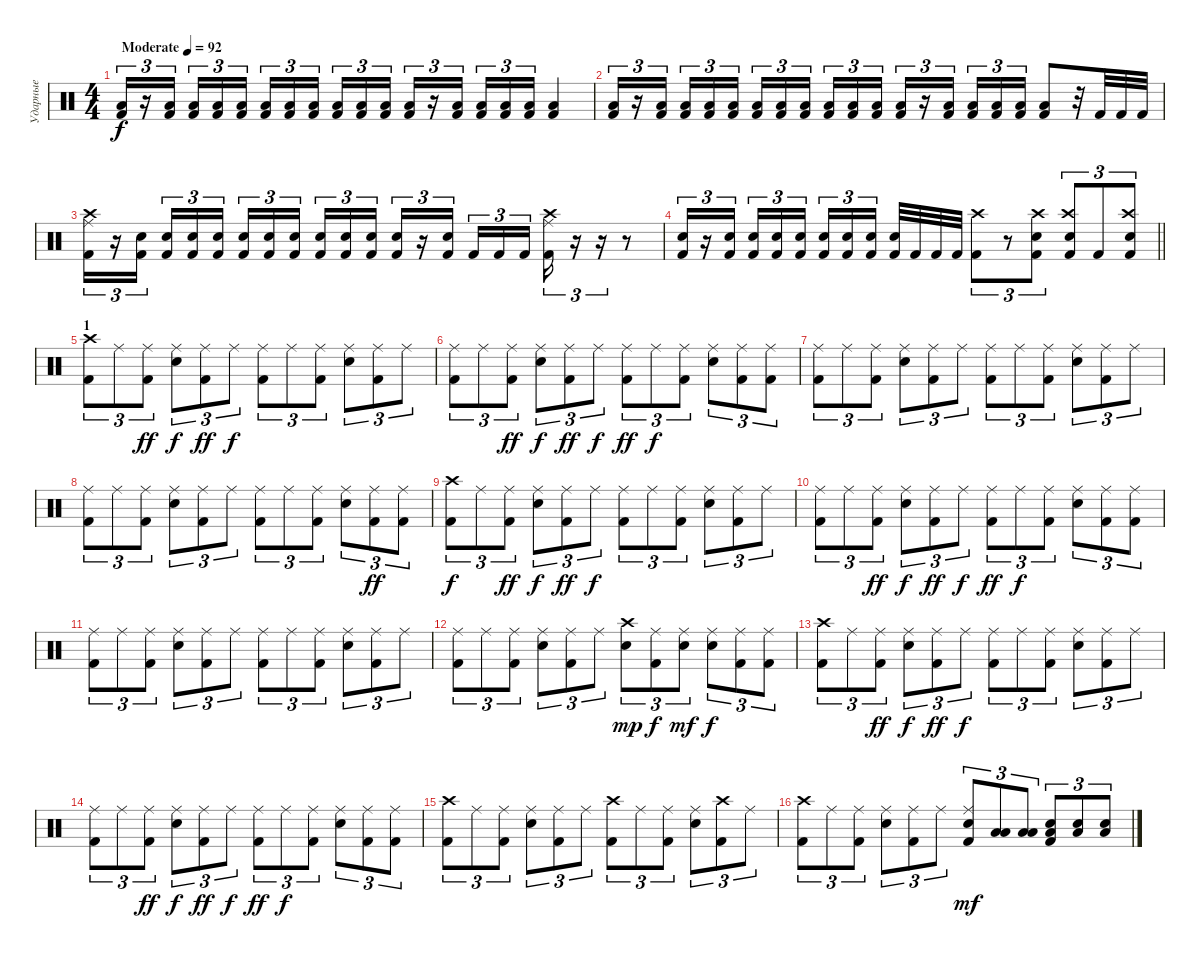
\track ("Ударные" "Ударные") {instrument percussion}
\staff {score}
\articulation defaults
\ts (4 4)
\tempo (92 "Moderate")
\clef neutral
\ks c
("Low Floor Tom (hit)" "Kick (hit) 2").16{tu (3 2) dy f} r.16{tu (3 2)} ("Low Floor Tom (hit)" "Kick (hit) 2").16{tu (3 2) beam splitsecondary} ("Low Floor Tom (hit)" "Kick (hit) 2").16{tu (3 2)} ("Low Floor Tom (hit)" "Kick (hit) 2").16{tu (3 2)} ("Low Floor Tom (hit)" "Kick (hit) 2").16{tu (3 2)} ("Low Floor Tom (hit)" "Kick (hit) 2").16{tu (3 2)} ("Low Floor Tom (hit)" "Kick (hit) 2").16{tu (3 2)} ("Low Floor Tom (hit)" "Kick (hit) 2").16{tu (3 2) beam splitsecondary} ("Low Floor Tom (hit)" "Kick (hit) 2").16{tu (3 2)} ("Low Floor Tom (hit)" "Kick (hit) 2").16{tu (3 2)} ("Low Floor Tom (hit)" "Kick (hit) 2").16{tu (3 2)} ("Low Floor Tom (hit)" "Kick (hit) 2").16{tu (3 2)} r.16{tu (3 2)} ("Low Floor Tom (hit)" "Kick (hit) 2").16{tu (3 2) beam splitsecondary} ("Low Floor Tom (hit)" "Kick (hit) 2").16{tu (3 2)} ("Low Floor Tom (hit)" "Kick (hit) 2").16{tu (3 2)} ("Low Floor Tom (hit)" "Kick (hit) 2").16{tu (3 2)} ("Low Floor Tom (hit)" "Kick (hit) 2").4 |
("Low Floor Tom (hit)" "Kick (hit) 2").16{tu (3 2)} r.16{tu (3 2)} ("Low Floor Tom (hit)" "Kick (hit) 2").16{tu (3 2) beam splitsecondary} ("Low Floor Tom (hit)" "Kick (hit) 2").16{tu (3 2)} ("Low Floor Tom (hit)" "Kick (hit) 2").16{tu (3 2)} ("Low Floor Tom (hit)" "Kick (hit) 2").16{tu (3 2)} ("Low Floor Tom (hit)" "Kick (hit) 2").16{tu (3 2)} ("Low Floor Tom (hit)" "Kick (hit) 2").16{tu (3 2)} ("Low Floor Tom (hit)" "Kick (hit) 2").16{tu (3 2) beam splitsecondary} ("Low Floor Tom (hit)" "Kick (hit) 2").16{tu (3 2)} ("Low Floor Tom (hit)" "Kick (hit) 2").16{tu (3 2)} ("Low Floor Tom (hit)" "Kick (hit) 2").16{tu (3 2)} ("Low Floor Tom (hit)" "Kick (hit) 2").16{tu (3 2)} r.16{tu (3 2)} ("Low Floor Tom (hit)" "Kick (hit) 2").16{tu (3 2) beam splitsecondary} ("Low Floor Tom (hit)" "Kick (hit) 2").16{tu (3 2)} ("Low Floor Tom (hit)" "Kick (hit) 2").16{tu (3 2)} ("Low Floor Tom (hit)" "Kick (hit) 2").16{tu (3 2)} ("Low Floor Tom (hit)" "Kick (hit) 2").8 r.32 "Kick (hit) 2".32 "Kick (hit) 2".32 "Kick (hit) 2".32 |
("Crash high (hit)" "Ride (middle)" "Kick (hit) 2").16{tu (3 2)} r.16{tu (3 2)} ("Electric Snare (hit)" "Kick (hit) 2").16{tu (3 2) beam splitsecondary} ("Electric Snare (hit)" "Kick (hit) 2").16{tu (3 2)} ("Electric Snare (hit)" "Kick (hit) 2").16{tu (3 2)} ("Electric Snare (hit)" "Kick (hit) 2").16{tu (3 2)} ("Electric Snare (hit)" "Kick (hit) 2").16{tu (3 2)} ("Electric Snare (hit)" "Kick (hit) 2").16{tu (3 2)} ("Electric Snare (hit)" "Kick (hit) 2").16{tu (3 2) beam splitsecondary} ("Electric Snare (hit)" "Kick (hit) 2").16{tu (3 2)} ("Electric Snare (hit)" "Kick (hit) 2").16{tu (3 2)} ("Electric Snare (hit)" "Kick (hit) 2").16{tu (3 2)} ("Electric Snare (hit)" "Kick (hit) 2").16{tu (3 2)} r.16{tu (3 2)} ("Electric Snare (hit)" "Kick (hit) 2").16{tu (3 2) beam splitsecondary} "Kick (hit) 2".16{tu (3 2)} "Kick (hit) 2".16{tu (3 2)} "Kick (hit) 2".16{tu (3 2)} ("Crash high (hit)" "Ride (middle)" "Kick (hit) 2").16{tu (3 2)} r.16{tu (3 2)} r.16{tu (3 2)} r.8 |
\barLineRight lightlight
("Electric Snare (hit)" "Kick (hit) 2").16{tu (3 2)} r.16{tu (3 2)} ("Electric Snare (hit)" "Kick (hit) 2").16{tu (3 2) beam splitsecondary} ("Electric Snare (hit)" "Kick (hit) 2").16{tu (3 2)} ("Electric Snare (hit)" "Kick (hit) 2").16{tu (3 2)} ("Electric Snare (hit)" "Kick (hit) 2").16{tu (3 2)} ("Electric Snare (hit)" "Kick (hit) 2").16{tu (3 2)} ("Electric Snare (hit)" "Kick (hit) 2").16{tu (3 2)} ("Electric Snare (hit)" "Kick (hit) 2").16{tu (3 2) beam splitsecondary} ("Electric Snare (hit)" "Kick (hit) 2").32 "Kick (hit) 2".32 "Kick (hit) 2".32 "Kick (hit) 2".32 ("Crash high (hit)" "Kick (hit) 2").8{tu (3 2)} r.8{tu (3 2)} ("Crash high (hit)" "Electric Snare (hit)" "Kick (hit) 2").8{tu (3 2)} ("Crash high (hit)" "Electric Snare (hit)" "Kick (hit) 2").8{tu (3 2)} "Kick (hit) 2".8{tu (3 2)} ("Crash high (hit)" "Electric Snare (hit)" "Kick (hit) 2").8{tu (3 2)} |
\section ("" "1")
("Crash high (hit)" "Kick (hit) 2").8{tu (3 2)} "Ride (middle)".8{tu (3 2)} ("Ride (middle)" "Kick (hit) 2").8{tu (3 2) dy ff} ("Ride (middle)" "Electric Snare (hit)").8{tu (3 2) dy f} ("Ride (middle)" "Kick (hit) 2").8{tu (3 2) dy ff} "Ride (middle)".8{tu (3 2) dy f} ("Ride (middle)" "Kick (hit) 2").8{tu (3 2)} "Ride (middle)".8{tu (3 2)} ("Ride (middle)" "Kick (hit) 2").8{tu (3 2)} ("Ride (middle)" "Electric Snare (hit)").8{tu (3 2)} ("Ride (middle)" "Kick (hit) 2").8{tu (3 2)} "Ride (middle)".8{tu (3 2)} |
("Ride (middle)" "Kick (hit) 2").8{tu (3 2)} "Ride (middle)".8{tu (3 2)} ("Ride (middle)" "Kick (hit) 2").8{tu (3 2) dy ff} ("Ride (middle)" "Electric Snare (hit)").8{tu (3 2) dy f} ("Ride (middle)" "Kick (hit) 2").8{tu (3 2) dy ff} "Ride (middle)".8{tu (3 2) dy f} ("Ride (middle)" "Kick (hit) 2").8{tu (3 2) dy ff} "Ride (middle)".8{tu (3 2) dy f} ("Ride (middle)" "Kick (hit) 2").8{tu (3 2)} ("Ride (middle)" "Electric Snare (hit)").8{tu (3 2)} ("Ride (middle)" "Kick (hit) 2").8{tu (3 2)} ("Ride (middle)" "Kick (hit) 2").8{tu (3 2)} |
("Ride (middle)" "Kick (hit) 2").8{tu (3 2)} "Ride (middle)".8{tu (3 2)} ("Ride (middle)" "Kick (hit) 2").8{tu (3 2)} ("Ride (middle)" "Electric Snare (hit)").8{tu (3 2)} ("Ride (middle)" "Kick (hit) 2").8{tu (3 2)} "Ride (middle)".8{tu (3 2)} ("Ride (middle)" "Kick (hit) 2").8{tu (3 2)} "Ride (middle)".8{tu (3 2)} ("Ride (middle)" "Kick (hit) 2").8{tu (3 2)} ("Ride (middle)" "Electric Snare (hit)").8{tu (3 2)} ("Ride (middle)" "Kick (hit) 2").8{tu (3 2)} "Ride (middle)".8{tu (3 2)} |
("Ride (middle)" "Kick (hit) 2").8{tu (3 2)} "Ride (middle)".8{tu (3 2)} ("Ride (middle)" "Kick (hit) 2").8{tu (3 2)} ("Ride (middle)" "Electric Snare (hit)").8{tu (3 2)} ("Ride (middle)" "Kick (hit) 2").8{tu (3 2)} "Ride (middle)".8{tu (3 2)} ("Ride (middle)" "Kick (hit) 2").8{tu (3 2)} "Ride (middle)".8{tu (3 2)} ("Ride (middle)" "Kick (hit) 2").8{tu (3 2)} ("Ride (middle)" "Electric Snare (hit)").8{tu (3 2)} ("Ride (middle)" "Kick (hit) 2").8{tu (3 2) dy ff} ("Ride (middle)" "Kick (hit) 2").8{tu (3 2)} |
("Crash high (hit)" "Kick (hit) 2").8{tu (3 2) dy f} "Ride (middle)".8{tu (3 2)} ("Ride (middle)" "Kick (hit) 2").8{tu (3 2) dy ff} ("Ride (middle)" "Electric Snare (hit)").8{tu (3 2) dy f} ("Ride (middle)" "Kick (hit) 2").8{tu (3 2) dy ff} "Ride (middle)".8{tu (3 2) dy f} ("Ride (middle)" "Kick (hit) 2").8{tu (3 2)} "Ride (middle)".8{tu (3 2)} ("Ride (middle)" "Kick (hit) 2").8{tu (3 2)} ("Ride (middle)" "Electric Snare (hit)").8{tu (3 2)} ("Ride (middle)" "Kick (hit) 2").8{tu (3 2)} "Ride (middle)".8{tu (3 2)} |
("Ride (middle)" "Kick (hit) 2").8{tu (3 2)} "Ride (middle)".8{tu (3 2)} ("Ride (middle)" "Kick (hit) 2").8{tu (3 2) dy ff} ("Ride (middle)" "Electric Snare (hit)").8{tu (3 2) dy f} ("Ride (middle)" "Kick (hit) 2").8{tu (3 2) dy ff} "Ride (middle)".8{tu (3 2) dy f} ("Ride (middle)" "Kick (hit) 2").8{tu (3 2) dy ff} "Ride (middle)".8{tu (3 2) dy f} ("Ride (middle)" "Kick (hit) 2").8{tu (3 2)} ("Ride (middle)" "Electric Snare (hit)").8{tu (3 2)} ("Ride (middle)" "Kick (hit) 2").8{tu (3 2)} ("Ride (middle)" "Kick (hit) 2").8{tu (3 2)} |
("Ride (middle)" "Kick (hit) 2").8{tu (3 2)} "Ride (middle)".8{tu (3 2)} ("Ride (middle)" "Kick (hit) 2").8{tu (3 2)} ("Ride (middle)" "Electric Snare (hit)").8{tu (3 2)} ("Ride (middle)" "Kick (hit) 2").8{tu (3 2)} "Ride (middle)".8{tu (3 2)} ("Ride (middle)" "Kick (hit) 2").8{tu (3 2)} "Ride (middle)".8{tu (3 2)} ("Ride (middle)" "Kick (hit) 2").8{tu (3 2)} ("Ride (middle)" "Electric Snare (hit)").8{tu (3 2)} ("Ride (middle)" "Kick (hit) 2").8{tu (3 2)} "Ride (middle)".8{tu (3 2)} |
("Ride (middle)" "Kick (hit) 2").8{tu (3 2)} "Ride (middle)".8{tu (3 2)} ("Ride (middle)" "Kick (hit) 2").8{tu (3 2)} ("Ride (middle)" "Electric Snare (hit)").8{tu (3 2)} ("Ride (middle)" "Kick (hit) 2").8{tu (3 2)} "Ride (middle)".8{tu (3 2)} ("Crash high (hit)" "Electric Snare (hit)").8{tu (3 2) dy mp} ("Ride (middle)" "Kick (hit) 2").8{tu (3 2) dy f} ("Ride (middle)" "Electric Snare (hit)").8{tu (3 2) dy mf} ("Ride (middle)" "Electric Snare (hit)").8{tu (3 2) dy f} ("Ride (middle)" "Kick (hit) 2").8{tu (3 2)} ("Ride (middle)" "Kick (hit) 2").8{tu (3 2)} |
("Crash high (hit)" "Kick (hit) 2").8{tu (3 2)} "Ride (middle)".8{tu (3 2)} ("Ride (middle)" "Kick (hit) 2").8{tu (3 2) dy ff} ("Ride (middle)" "Electric Snare (hit)").8{tu (3 2) dy f} ("Ride (middle)" "Kick (hit) 2").8{tu (3 2) dy ff} "Ride (middle)".8{tu (3 2) dy f} ("Ride (middle)" "Kick (hit) 2").8{tu (3 2)} "Ride (middle)".8{tu (3 2)} ("Ride (middle)" "Kick (hit) 2").8{tu (3 2)} ("Ride (middle)" "Electric Snare (hit)").8{tu (3 2)} ("Ride (middle)" "Kick (hit) 2").8{tu (3 2)} "Ride (middle)".8{tu (3 2)} |
("Ride (middle)" "Kick (hit) 2").8{tu (3 2)} "Ride (middle)".8{tu (3 2)} ("Ride (middle)" "Kick (hit) 2").8{tu (3 2) dy ff} ("Ride (middle)" "Electric Snare (hit)").8{tu (3 2) dy f} ("Ride (middle)" "Kick (hit) 2").8{tu (3 2) dy ff} "Ride (middle)".8{tu (3 2) dy f} ("Ride (middle)" "Kick (hit) 2").8{tu (3 2) dy ff} "Ride (middle)".8{tu (3 2) dy f} ("Ride (middle)" "Kick (hit) 2").8{tu (3 2)} ("Ride (middle)" "Electric Snare (hit)").8{tu (3 2)} ("Ride (middle)" "Kick (hit) 2").8{tu (3 2)} ("Ride (middle)" "Kick (hit) 2").8{tu (3 2)} |
("Crash high (hit)" "Kick (hit) 2").8{tu (3 2)} "Ride (middle)".8{tu (3 2)} ("Ride (middle)" "Kick (hit) 2").8{tu (3 2)} ("Ride (middle)" "Electric Snare (hit)").8{tu (3 2)} ("Ride (middle)" "Kick (hit) 2").8{tu (3 2)} "Ride (middle)".8{tu (3 2)} ("Crash high (hit)" "Kick (hit) 2").8{tu (3 2)} "Ride (middle)".8{tu (3 2)} ("Ride (middle)" "Kick (hit) 2").8{tu (3 2)} ("Ride (middle)" "Electric Snare (hit)").8{tu (3 2)} ("Crash high (hit)" "Kick (hit) 2").8{tu (3 2)} "Ride (middle)".8{tu (3 2)} |
("Crash high (hit)" "Kick (hit) 2").8{tu (3 2)} "Ride (middle)".8{tu (3 2)} ("Ride (middle)" "Kick (hit) 2").8{tu (3 2)} ("Ride (middle)" "Electric Snare (hit)").8{tu (3 2)} ("Ride (middle)" "Kick (hit) 2").8{tu (3 2)} "Ride (middle)".8{tu (3 2)} ("Ride (middle)" "Electric Snare (hit)" "Kick (hit) 2").8{tu (3 2) dy mf} ("Low Floor Tom (hit)" "Low Tom (hit)").8{tu (3 2)} ("Low Floor Tom (hit)" "Low Tom (hit)").8{tu (3 2)} ("Electric Snare (hit)" "Low Tom (hit)" "Kick (hit) 2").8{tu (3 2)} ("Electric Snare (hit)" "Low Tom (hit)").8{tu (3 2)} ("Electric Snare (hit)" "Low Tom (hit)").8{tu (3 2)}
